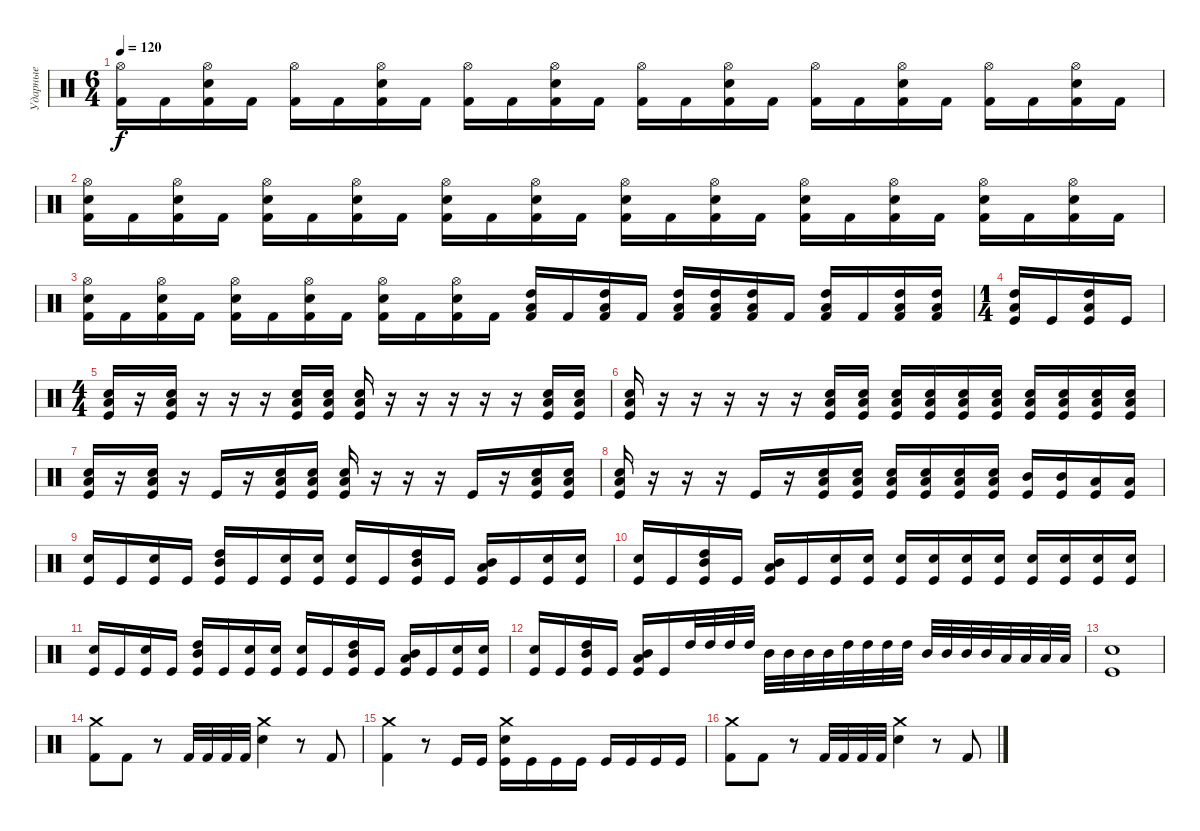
\track ("Ударные" "Ударные") {instrument percussion}
\staff {score}
\articulation defaults
\ts (6 4)
\tempo 120
\clef neutral
\ks c
("Hi-Hat (open)" "Kick (hit) 2").16{dy f} "Kick (hit) 2".16 ("Hi-Hat (open)" "Snare (hit) 2" "Kick (hit) 2").16 "Kick (hit) 2".16 ("Hi-Hat (open)" "Kick (hit) 2").16 "Kick (hit) 2".16 ("Hi-Hat (open)" "Snare (hit) 2" "Kick (hit) 2").16 "Kick (hit) 2".16 ("Hi-Hat (open)" "Kick (hit) 2").16 "Kick (hit) 2".16 ("Hi-Hat (open)" "Snare (hit) 2" "Kick (hit) 2").16 "Kick (hit) 2".16 ("Hi-Hat (open)" "Kick (hit) 2").16 "Kick (hit) 2".16 ("Hi-Hat (open)" "Snare (hit) 2" "Kick (hit) 2").16 "Kick (hit) 2".16 ("Hi-Hat (open)" "Kick (hit) 2").16 "Kick (hit) 2".16 ("Hi-Hat (open)" "Snare (hit) 2" "Kick (hit) 2").16 "Kick (hit) 2".16 ("Hi-Hat (open)" "Kick (hit) 2").16 "Kick (hit) 2".16 ("Hi-Hat (open)" "Snare (hit) 2" "Kick (hit) 2").16 "Kick (hit) 2".16 |
("Hi-Hat (open)" "Snare (hit) 2" "Kick (hit) 2").16 "Kick (hit) 2".16 ("Hi-Hat (open)" "Snare (hit) 2" "Kick (hit) 2").16 "Kick (hit) 2".16 ("Hi-Hat (open)" "Snare (hit) 2" "Kick (hit) 2").16 "Kick (hit) 2".16 ("Hi-Hat (open)" "Snare (hit) 2" "Kick (hit) 2").16 "Kick (hit) 2".16 ("Hi-Hat (open)" "Snare (hit) 2" "Kick (hit) 2").16 "Kick (hit) 2".16 ("Hi-Hat (open)" "Snare (hit) 2" "Kick (hit) 2").16 "Kick (hit) 2".16 ("Hi-Hat (open)" "Snare (hit) 2" "Kick (hit) 2").16 "Kick (hit) 2".16 ("Hi-Hat (open)" "Snare (hit) 2" "Kick (hit) 2").16 "Kick (hit) 2".16 ("Hi-Hat (open)" "Snare (hit) 2" "Kick (hit) 2").16 "Kick (hit) 2".16 ("Hi-Hat (open)" "Snare (hit) 2" "Kick (hit) 2").16 "Kick (hit) 2".16 ("Hi-Hat (open)" "Snare (hit) 2" "Kick (hit) 2").16 "Kick (hit) 2".16 ("Hi-Hat (open)" "Snare (hit) 2" "Kick (hit) 2").16 "Kick (hit) 2".16 |
("Hi-Hat (open)" "Snare (hit) 2" "Kick (hit) 2").16 "Kick (hit) 2".16 ("Hi-Hat (open)" "Snare (hit) 2" "Kick (hit) 2").16 "Kick (hit) 2".16 ("Hi-Hat (open)" "Snare (hit) 2" "Kick (hit) 2").16 "Kick (hit) 2".16 ("Hi-Hat (open)" "Snare (hit) 2" "Kick (hit) 2").16 "Kick (hit) 2".16 ("Hi-Hat (open)" "Snare (hit) 2" "Kick (hit) 2").16 "Kick (hit) 2".16 ("Hi-Hat (open)" "Snare (hit) 2" "Kick (hit) 2").16 "Kick (hit) 2".16 ("High Tom (hit)" "Low Tom (hit)" "Kick (hit) 2").16 "Kick (hit) 2".16 ("High Tom (hit)" "Low Tom (hit)" "Kick (hit) 2").16 "Kick (hit) 2".16 ("Low Tom (hit)" "High Tom (hit)" "Kick (hit) 2").16 ("Low Tom (hit)" "High Tom (hit)" "Kick (hit) 2").16 ("Low Tom (hit)" "High Tom (hit)" "Kick (hit) 2").16 "Kick (hit) 2".16 ("Low Tom (hit)" "High Tom (hit)" "Kick (hit) 2").16 "Kick (hit) 2".16 ("High Tom (hit)" "Low Tom (hit)" "Kick (hit) 2").16 ("High Tom (hit)" "Low Tom (hit)" "Kick (hit) 2").16 |
\ts (1 4)
("Low Tom (hit)" "High Tom (hit)" "Kick (hit)").16 "Kick (hit)".16 ("High Tom (hit)" "Low Tom (hit)" "Kick (hit)").16 "Kick (hit)".16 |
\ts (4 4)
("Low Tom (hit)" "Snare (hit) 2" "Kick (hit)").16 r.16 ("Low Tom (hit)" "Snare (hit) 2" "Kick (hit)").16 r.16 r.16 r.16 ("Low Tom (hit)" "Snare (hit) 2" "Kick (hit)").16 ("Low Tom (hit)" "Snare (hit) 2" "Kick (hit)").16 ("Low Tom (hit)" "Snare (hit) 2" "Kick (hit)").16 r.16 r.16 r.16 r.16 r.16 ("Low Tom (hit)" "Snare (hit) 2" "Kick (hit)").16 ("Low Tom (hit)" "Snare (hit) 2" "Kick (hit)").16 |
("Low Tom (hit)" "Snare (hit) 2" "Kick (hit)").16 r.16 r.16 r.16 r.16 r.16 ("Low Tom (hit)" "Snare (hit) 2" "Kick (hit)").16 ("Low Tom (hit)" "Snare (hit) 2" "Kick (hit)").16 ("Low Tom (hit)" "Snare (hit) 2" "Kick (hit)").16 ("Low Tom (hit)" "Snare (hit) 2" "Kick (hit)").16 ("Low Tom (hit)" "Snare (hit) 2" "Kick (hit)").16 ("Low Tom (hit)" "Snare (hit) 2" "Kick (hit)").16 ("Low Tom (hit)" "Snare (hit) 2" "Kick (hit)").16 ("Low Tom (hit)" "Snare (hit) 2" "Kick (hit)").16 ("Low Tom (hit)" "Snare (hit) 2" "Kick (hit)").16 ("Low Tom (hit)" "Snare (hit) 2" "Kick (hit)").16 |
("Low Tom (hit)" "Snare (hit) 2" "Kick (hit)").16 r.16 ("Low Tom (hit)" "Snare (hit) 2" "Kick (hit)").16 r.16 "Kick (hit)".16 r.16 ("Low Tom (hit)" "Snare (hit) 2" "Kick (hit)").16 ("Low Tom (hit)" "Snare (hit) 2" "Kick (hit)").16 ("Low Tom (hit)" "Snare (hit) 2" "Kick (hit)").16 r.16 r.16 r.16 "Kick (hit)".16 r.16 ("Low Tom (hit)" "Snare (hit) 2" "Kick (hit)").16 ("Low Tom (hit)" "Snare (hit) 2" "Kick (hit)").16 |
("Low Tom (hit)" "Snare (hit) 2" "Kick (hit)").16 r.16 r.16 r.16 "Kick (hit)".16 r.16 ("Low Tom (hit)" "Snare (hit) 2" "Kick (hit)").16 ("Low Tom (hit)" "Snare (hit) 2" "Kick (hit)").16 ("Low Tom (hit)" "Snare (hit) 2" "Kick (hit)").16 ("Low Tom (hit)" "Snare (hit) 2" "Kick (hit)").16 ("Low Tom (hit)" "Snare (hit) 2" "Kick (hit)").16 ("Low Tom (hit)" "Snare (hit) 2" "Kick (hit)").16 ("Mid Tom (hit)" "Kick (hit)").16 ("Mid Tom (hit)" "Kick (hit)").16 ("Low Tom (hit)" "Kick (hit)").16 ("Low Tom (hit)" "Kick (hit)").16 |
("Snare (hit) 2" "Kick (hit)").16 "Kick (hit)".16 ("Snare (hit) 2" "Kick (hit)").16 "Kick (hit)".16 ("Mid Tom (hit)" "High Tom (hit)" "Kick (hit)").16 "Kick (hit)".16 ("Snare (hit) 2" "Kick (hit)").16 ("Snare (hit) 2" "Kick (hit)").16 ("Snare (hit) 2" "Kick (hit)").16 "Kick (hit)".16 ("Mid Tom (hit)" "High Tom (hit)" "Kick (hit)").16 "Kick (hit)".16 ("Low Tom (hit)" "Mid Tom (hit)" "Kick (hit)").16 "Kick (hit)".16 ("Snare (hit) 2" "Kick (hit)").16 ("Snare (hit) 2" "Kick (hit)").16 |
("Snare (hit) 2" "Kick (hit)").16 "Kick (hit)".16 ("Mid Tom (hit)" "High Tom (hit)" "Kick (hit)").16 "Kick (hit)".16 ("Mid Tom (hit)" "Low Tom (hit)" "Kick (hit)").16 "Kick (hit)".16 ("Snare (hit) 2" "Kick (hit)").16 ("Snare (hit) 2" "Kick (hit)").16 ("Snare (hit) 2" "Kick (hit)").16 ("Snare (hit) 2" "Kick (hit)").16 ("Snare (hit) 2" "Kick (hit)").16 ("Snare (hit) 2" "Kick (hit)").16 ("Snare (hit) 2" "Kick (hit)").16 ("Snare (hit) 2" "Kick (hit)").16 ("Snare (hit) 2" "Kick (hit)").16 ("Snare (hit) 2" "Kick (hit)").16 |
("Snare (hit) 2" "Kick (hit)").16 "Kick (hit)".16 ("Snare (hit) 2" "Kick (hit)").16 "Kick (hit)".16 ("Mid Tom (hit)" "High Tom (hit)" "Kick (hit)").16 "Kick (hit)".16 ("Snare (hit) 2" "Kick (hit)").16 ("Snare (hit) 2" "Kick (hit)").16 ("Snare (hit) 2" "Kick (hit)").16 "Kick (hit)".16 ("Mid Tom (hit)" "High Tom (hit)" "Kick (hit)").16 "Kick (hit)".16 ("Low Tom (hit)" "Mid Tom (hit)" "Kick (hit)").16 "Kick (hit)".16 ("Snare (hit) 2" "Kick (hit)").16 ("Snare (hit) 2" "Kick (hit)").16 |
("Snare (hit) 2" "Kick (hit)").16 "Kick (hit)".16 ("Mid Tom (hit)" "High Tom (hit)" "Kick (hit)").16 "Kick (hit)".16 ("Mid Tom (hit)" "Low Tom (hit)" "Kick (hit)").16 "Kick (hit)".16 "High Tom (hit)".32 "High Tom (hit)".32 "High Tom (hit)".32 "High Tom (hit)".32 "Mid Tom (hit)".32 "Mid Tom (hit)".32 "Mid Tom (hit)".32 "Mid Tom (hit)".32 "High Tom (hit)".32 "High Tom (hit)".32 "High Tom (hit)".32 "High Tom (hit)".32 "Mid Tom (hit)".32 "Mid Tom (hit)".32 "Mid Tom (hit)".32 "Mid Tom (hit)".32 "Low Tom (hit)".32 "Low Tom (hit)".32 "Low Tom (hit)".32 "Low Tom (hit)".32 |
("Snare (hit) 2" "Kick (hit)").1 |
("Crash medium (hit)" "Kick (hit) 2").8 "Kick (hit) 2".8 r.8 "Kick (hit) 2".32 "Kick (hit) 2".32 "Kick (hit) 2".32 "Kick (hit) 2".32 ("Crash medium (hit)" "Snare (hit) 2").4 r.8 "Kick (hit) 2".8 |
("Crash medium (hit)" "Kick (hit) 2").4 r.8 "Kick (hit)".16 "Kick (hit)".16 ("Crash medium (hit)" "Snare (hit) 2" "Kick (hit)").16 "Kick (hit)".16 "Kick (hit)".16 "Kick (hit)".16 "Kick (hit)".16 "Kick (hit)".16 "Kick (hit)".16 "Kick (hit)".16 |
("Crash medium (hit)" "Kick (hit) 2").8 "Kick (hit) 2".8 r.8 "Kick (hit) 2".32 "Kick (hit) 2".32 "Kick (hit) 2".32 "Kick (hit) 2".32 ("Crash medium (hit)" "Snare (hit) 2").4 r.8 "Kick (hit) 2".8
